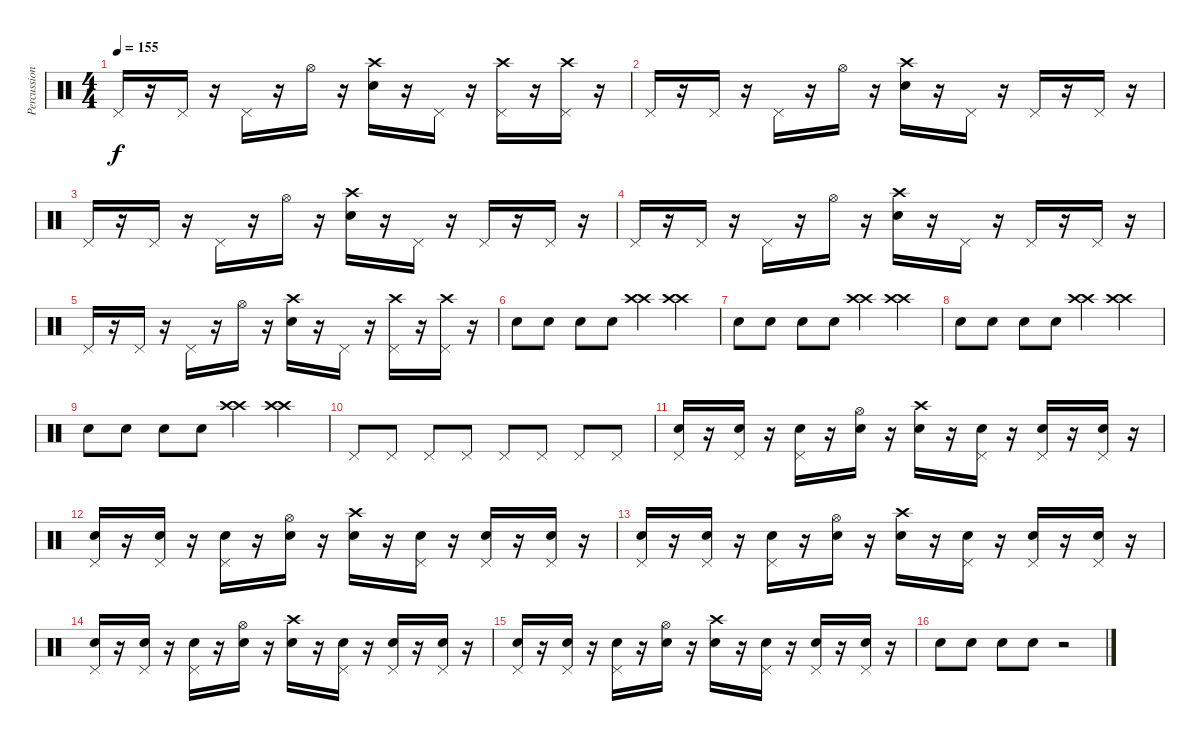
\track ("Percussion" "Percussion") {instrument percussion}
\staff {score}
\articulation defaults
\ts (4 4)
\tempo 155
\clef neutral
\ks c "Pedal Hi-Hat (hit)".16{dy f}
r.16 "Pedal Hi-Hat (hit)".16 r.16 "Pedal Hi-Hat (hit)".16 r.16 "Hi-Hat (open)".16 r.16 ("Crash high (hit)" "Electric Snare (hit)").16 r.16 "Pedal Hi-Hat (hit)".16 r.16 ("Crash high (hit)" "Pedal Hi-Hat (hit)").16 r.16 ("Crash high (hit)" "Pedal Hi-Hat (hit)").16 r.16 |
"Pedal Hi-Hat (hit)".16 r.16 "Pedal Hi-Hat (hit)".16 r.16 "Pedal Hi-Hat (hit)".16 r.16 "Hi-Hat (open)".16 r.16 ("Crash high (hit)" "Electric Snare (hit)").16 r.16 "Pedal Hi-Hat (hit)".16 r.16 "Pedal Hi-Hat (hit)".16 r.16 "Pedal Hi-Hat (hit)".16 r.16 |
"Pedal Hi-Hat (hit)".16 r.16 "Pedal Hi-Hat (hit)".16 r.16 "Pedal Hi-Hat (hit)".16 r.16 "Hi-Hat (open)".16 r.16 ("Crash high (hit)" "Electric Snare (hit)").16 r.16 "Pedal Hi-Hat (hit)".16 r.16 "Pedal Hi-Hat (hit)".16 r.16 "Pedal Hi-Hat (hit)".16 r.16 |
"Pedal Hi-Hat (hit)".16 r.16 "Pedal Hi-Hat (hit)".16 r.16 "Pedal Hi-Hat (hit)".16 r.16 "Hi-Hat (open)".16 r.16 ("Crash high (hit)" "Electric Snare (hit)").16 r.16 "Pedal Hi-Hat (hit)".16 r.16 "Pedal Hi-Hat (hit)".16 r.16 "Pedal Hi-Hat (hit)".16 r.16 |
"Pedal Hi-Hat (hit)".16 r.16 "Pedal Hi-Hat (hit)".16 r.16 "Pedal Hi-Hat (hit)".16 r.16 "Hi-Hat (open)".16 r.16 ("Crash high (hit)" "Electric Snare (hit)").16 r.16 "Pedal Hi-Hat (hit)".16 r.16 ("Crash high (hit)" "Pedal Hi-Hat (hit)").16 r.16 ("Crash high (hit)" "Pedal Hi-Hat (hit)").16 r.16 |
"Electric Snare (hit)".8 "Electric Snare (hit)".8 "Electric Snare (hit)".8 "Electric Snare (hit)".8 ("Crash high (hit)" "Crash high (hit)").4 ("Crash high (hit)" "Crash high (hit)").4 |
"Electric Snare (hit)".8 "Electric Snare (hit)".8 "Electric Snare (hit)".8 "Electric Snare (hit)".8 ("Crash high (hit)" "Crash high (hit)").4 ("Crash high (hit)" "Crash high (hit)").4 |
"Electric Snare (hit)".8 "Electric Snare (hit)".8 "Electric Snare (hit)".8 "Electric Snare (hit)".8 ("Crash high (hit)" "Crash high (hit)").4 ("Crash high (hit)" "Crash high (hit)").4 |
"Electric Snare (hit)".8 "Electric Snare (hit)".8 "Electric Snare (hit)".8 "Electric Snare (hit)".8 ("Crash high (hit)" "Crash high (hit)").4 ("Crash high (hit)" "Crash high (hit)").4 |
"Pedal Hi-Hat (hit)".8 "Pedal Hi-Hat (hit)".8 "Pedal Hi-Hat (hit)".8 "Pedal Hi-Hat (hit)".8 "Pedal Hi-Hat (hit)".8 "Pedal Hi-Hat (hit)".8 "Pedal Hi-Hat (hit)".8 "Pedal Hi-Hat (hit)".8 |
("Pedal Hi-Hat (hit)" "Electric Snare (hit)").16 r.16 ("Pedal Hi-Hat (hit)" "Electric Snare (hit)").16 r.16 ("Pedal Hi-Hat (hit)" "Electric Snare (hit)").16 r.16 ("Hi-Hat (open)" "Electric Snare (hit)").16 r.16 ("Crash high (hit)" "Electric Snare (hit)").16 r.16 ("Pedal Hi-Hat (hit)" "Electric Snare (hit)").16 r.16 ("Pedal Hi-Hat (hit)" "Electric Snare (hit)").16 r.16 ("Pedal Hi-Hat (hit)" "Electric Snare (hit)").16 r.16 |
("Pedal Hi-Hat (hit)" "Electric Snare (hit)").16 r.16 ("Pedal Hi-Hat (hit)" "Electric Snare (hit)").16 r.16 ("Pedal Hi-Hat (hit)" "Electric Snare (hit)").16 r.16 ("Hi-Hat (open)" "Electric Snare (hit)").16 r.16 ("Crash high (hit)" "Electric Snare (hit)").16 r.16 ("Pedal Hi-Hat (hit)" "Electric Snare (hit)").16 r.16 ("Pedal Hi-Hat (hit)" "Electric Snare (hit)").16 r.16 ("Pedal Hi-Hat (hit)" "Electric Snare (hit)").16 r.16 |
("Pedal Hi-Hat (hit)" "Electric Snare (hit)").16 r.16 ("Pedal Hi-Hat (hit)" "Electric Snare (hit)").16 r.16 ("Pedal Hi-Hat (hit)" "Electric Snare (hit)").16 r.16 ("Hi-Hat (open)" "Electric Snare (hit)").16 r.16 ("Crash high (hit)" "Electric Snare (hit)").16 r.16 ("Pedal Hi-Hat (hit)" "Electric Snare (hit)").16 r.16 ("Pedal Hi-Hat (hit)" "Electric Snare (hit)").16 r.16 ("Pedal Hi-Hat (hit)" "Electric Snare (hit)").16 r.16 |
("Pedal Hi-Hat (hit)" "Electric Snare (hit)").16 r.16 ("Pedal Hi-Hat (hit)" "Electric Snare (hit)").16 r.16 ("Pedal Hi-Hat (hit)" "Electric Snare (hit)").16 r.16 ("Hi-Hat (open)" "Electric Snare (hit)").16 r.16 ("Crash high (hit)" "Electric Snare (hit)").16 r.16 ("Pedal Hi-Hat (hit)" "Electric Snare (hit)").16 r.16 ("Pedal Hi-Hat (hit)" "Electric Snare (hit)").16 r.16 ("Pedal Hi-Hat (hit)" "Electric Snare (hit)").16 r.16 |
("Pedal Hi-Hat (hit)" "Electric Snare (hit)").16 r.16 ("Pedal Hi-Hat (hit)" "Electric Snare (hit)").16 r.16 ("Pedal Hi-Hat (hit)" "Electric Snare (hit)").16 r.16 ("Hi-Hat (open)" "Electric Snare (hit)").16 r.16 ("Crash high (hit)" "Electric Snare (hit)").16 r.16 ("Pedal Hi-Hat (hit)" "Electric Snare (hit)").16 r.16 ("Pedal Hi-Hat (hit)" "Electric Snare (hit)").16 r.16 ("Pedal Hi-Hat (hit)" "Electric Snare (hit)").16 r.16 |
"Electric Snare (hit)".8 "Electric Snare (hit)".8 "Electric Snare (hit)".8 "Electric Snare (hit)".8 r.2
